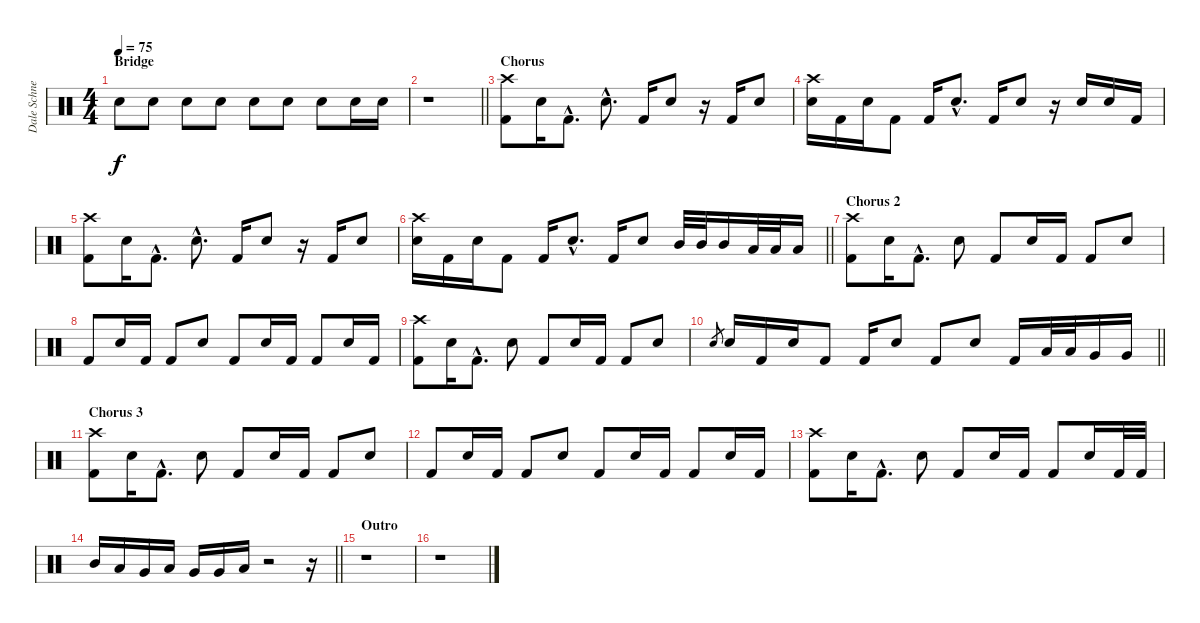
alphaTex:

\track ("Dale Schnettler (Drums)" "Dale Schne") {instrument percussion}
\staff {score}
\articulation defaults
\ts (4 4)
\section ("" "Bridge")
\tempo 75
\clef neutral
\ks c "Electric Snare (hit)".8{dy f} "Electric Snare (hit)".8 "Electric Snare (hit)".8 "Electric Snare (hit)".8 "Electric Snare (hit)".8 "Electric Snare (hit)".8 "Electric Snare (hit)".8 "Electric Snare (hit)".16 "Electric Snare (hit)".16
|
\barLineRight lightlight
r.1 |
\section ("" "Chorus")
("Crash high (hit)" "Kick (hit) 2").8 "Electric Snare (hit)".16 "Kick (hit) 2"{hac}.8{d} "Electric Snare (hit)"{hac}.8{d} "Kick (hit) 2".16 "Electric Snare (hit)".8 r.16 "Kick (hit) 2".16 "Electric Snare (hit)".8 |
("Crash high (hit)" "Electric Snare (hit)").16 "Kick (hit) 2".16 "Electric Snare (hit)".16 "Kick (hit) 2".8 "Kick (hit) 2".16 "Electric Snare (hit)"{hac}.8{d} "Kick (hit) 2".16 "Electric Snare (hit)".8 r.16 "Electric Snare (hit)".16 "Electric Snare (hit)".16 "Kick (hit) 2".16 |
("Crash high (hit)" "Kick (hit) 2").8 "Electric Snare (hit)".16 "Kick (hit) 2"{hac}.8{d} "Electric Snare (hit)"{hac}.8{d} "Kick (hit) 2".16 "Electric Snare (hit)".8 r.16 "Kick (hit) 2".16 "Electric Snare (hit)".8 |
\barLineRight lightlight
("Crash high (hit)" "Electric Snare (hit)").16 "Kick (hit) 2".16 "Electric Snare (hit)".16 "Kick (hit) 2".8 "Kick (hit) 2".16 "Electric Snare (hit)"{hac}.8{d} "Kick (hit) 2".16 "Electric Snare (hit)".8 "Mid Tom (hit)".32 "Mid Tom (hit)".32 "Mid Tom (hit)".16 "Low Tom (hit)".32 "Low Tom (hit)".32 "Low Tom (hit)".16 |
\section ("" "Chorus 2")
("Crash high (hit)" "Kick (hit) 2").8 "Electric Snare (hit)".16 "Kick (hit) 2"{hac}.8{d} "Electric Snare (hit)".8 "Kick (hit) 2".8 "Electric Snare (hit)".16 "Kick (hit) 2".16 "Kick (hit) 2".8 "Electric Snare (hit)".8 |
"Kick (hit) 2".8 "Electric Snare (hit)".16 "Kick (hit) 2".16 "Kick (hit) 2".8 "Electric Snare (hit)".8 "Kick (hit) 2".8 "Electric Snare (hit)".16 "Kick (hit) 2".16 "Kick (hit) 2".8 "Electric Snare (hit)".16 "Kick (hit) 2".16 |
("Crash high (hit)" "Kick (hit) 2").8 "Electric Snare (hit)".16 "Kick (hit) 2"{hac}.8{d} "Electric Snare (hit)".8 "Kick (hit) 2".8 "Electric Snare (hit)".16 "Kick (hit) 2".16 "Kick (hit) 2".8 "Electric Snare (hit)".8 |
\barLineRight lightlight "Electric Snare (hit)".8{gr} "Electric Snare (hit)".16 "Kick (hit) 2".16 "Electric Snare (hit)".16 "Kick (hit) 2".8 "Kick (hit) 2".16 "Electric Snare (hit)".8 "Kick (hit) 2".8 "Electric Snare (hit)".8 "Kick (hit) 2".16 "Low Tom (hit)".32 "Low Tom (hit)".32 "Very Low Tom (hit)".16 "Very Low Tom (hit)".16
|
\section ("" "Chorus 3")
("Crash high (hit)" "Kick (hit) 2").8 "Electric Snare (hit)".16 "Kick (hit) 2"{hac}.8{d} "Electric Snare (hit)".8 "Kick (hit) 2".8 "Electric Snare (hit)".16 "Kick (hit) 2".16 "Kick (hit) 2".8 "Electric Snare (hit)".8 |
"Kick (hit) 2".8 "Electric Snare (hit)".16 "Kick (hit) 2".16 "Kick (hit) 2".8 "Electric Snare (hit)".8 "Kick (hit) 2".8 "Electric Snare (hit)".16 "Kick (hit) 2".16 "Kick (hit) 2".8 "Electric Snare (hit)".16 "Kick (hit) 2".16 |
("Crash high (hit)" "Kick (hit) 2").8 "Electric Snare (hit)".16 "Kick (hit) 2"{hac}.8{d} "Electric Snare (hit)".8 "Kick (hit) 2".8 "Electric Snare (hit)".16 "Kick (hit) 2".16 "Kick (hit) 2".8 "Electric Snare (hit)".16 "Kick (hit) 2".32 "Kick (hit) 2".32 |
\barLineRight lightlight "Mid Tom (hit)".16 "Low Tom (hit)".16 "Very Low Tom (hit)".16 "Low Floor Tom (hit)".16 "Very Low Tom (hit)".16 "Very Low Tom (hit)".16 "Low Floor Tom (hit)".16
r.2 r.16 |
\section ("" "Outro")
r.1 |
r.1
